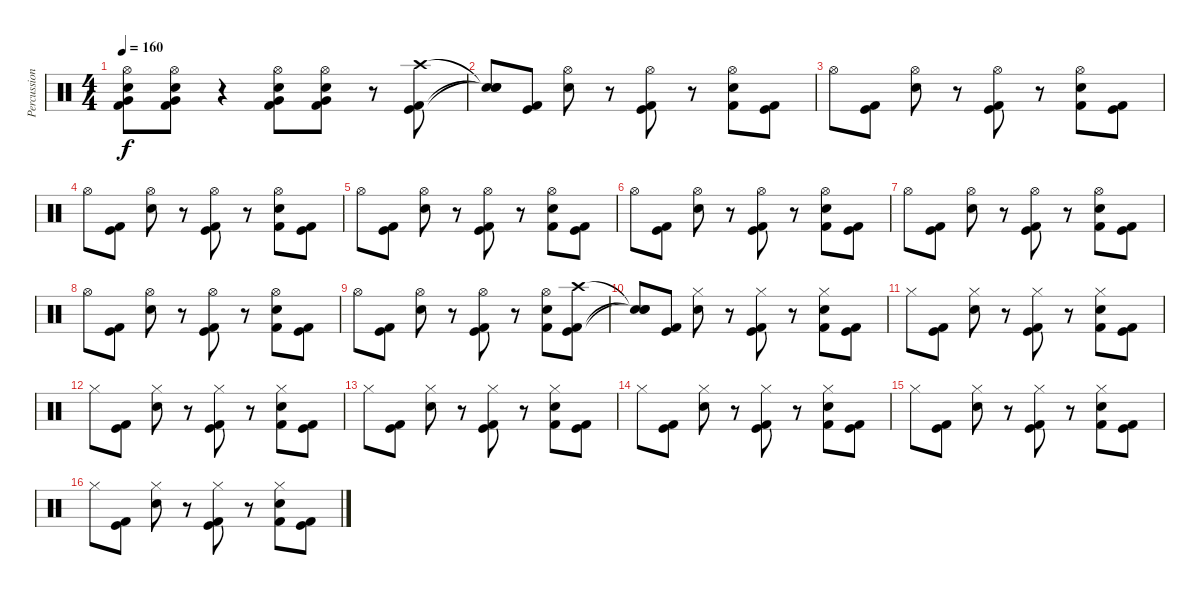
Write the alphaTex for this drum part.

\track ("Percussions" "Percussion") {instrument percussion}
\staff {score}
\articulation defaults
\ts (4 4)
\tempo 160
\clef neutral
\ks c
("Hi-Hat (open)" "Snare (hit) 2" "Very Low Tom (hit)" "Kick (hit) 2").8{dy f} ("Hi-Hat (open)" "Snare (hit) 2" "Very Low Tom (hit)" "Kick (hit) 2").8 r.4 ("Hi-Hat (open)" "Snare (hit) 2" "Very Low Tom (hit)" "Kick (hit) 2").8 ("Hi-Hat (open)" "Snare (hit) 2" "Very Low Tom (hit)" "Kick (hit) 2").8 r.8 ("Kick (hit) 2" "Kick (hit)" "Crash high (hit)").8 |
("Snare (hit)"{t} "Snare (hit)"{t} "Snare (hit)"{t}).8 ("Kick (hit) 2" "Kick (hit)").8 ("Snare (hit) 2" "Hi-Hat (open)").8 r.8 ("Kick (hit) 2" "Kick (hit)" "Hi-Hat (open)").8 r.8 ("Kick (hit) 2" "Snare (hit) 2" "Hi-Hat (open)").8 ("Kick (hit) 2" "Kick (hit)").8 |
"Hi-Hat (open)".8 ("Kick (hit) 2" "Kick (hit)").8 ("Snare (hit) 2" "Hi-Hat (open)").8 r.8 ("Kick (hit) 2" "Kick (hit)" "Hi-Hat (open)").8 r.8 ("Kick (hit) 2" "Snare (hit) 2" "Hi-Hat (open)").8 ("Kick (hit) 2" "Kick (hit)").8 |
"Hi-Hat (open)".8 ("Kick (hit) 2" "Kick (hit)").8 ("Snare (hit) 2" "Hi-Hat (open)").8 r.8 ("Kick (hit) 2" "Kick (hit)" "Hi-Hat (open)").8 r.8 ("Kick (hit) 2" "Snare (hit) 2" "Hi-Hat (open)").8 ("Kick (hit) 2" "Kick (hit)").8 |
"Hi-Hat (open)".8 ("Kick (hit) 2" "Kick (hit)").8 ("Snare (hit) 2" "Hi-Hat (open)").8 r.8 ("Kick (hit) 2" "Kick (hit)" "Hi-Hat (open)").8 r.8 ("Kick (hit) 2" "Snare (hit) 2" "Hi-Hat (open)").8 ("Kick (hit) 2" "Kick (hit)").8 |
"Hi-Hat (open)".8 ("Kick (hit) 2" "Kick (hit)").8 ("Snare (hit) 2" "Hi-Hat (open)").8 r.8 ("Kick (hit) 2" "Kick (hit)" "Hi-Hat (open)").8 r.8 ("Kick (hit) 2" "Snare (hit) 2" "Hi-Hat (open)").8 ("Kick (hit) 2" "Kick (hit)").8 |
"Hi-Hat (open)".8 ("Kick (hit) 2" "Kick (hit)").8 ("Snare (hit) 2" "Hi-Hat (open)").8 r.8 ("Kick (hit) 2" "Kick (hit)" "Hi-Hat (open)").8 r.8 ("Kick (hit) 2" "Snare (hit) 2" "Hi-Hat (open)").8 ("Kick (hit) 2" "Kick (hit)").8 |
"Hi-Hat (open)".8 ("Kick (hit) 2" "Kick (hit)").8 ("Snare (hit) 2" "Hi-Hat (open)").8 r.8 ("Kick (hit) 2" "Kick (hit)" "Hi-Hat (open)").8 r.8 ("Kick (hit) 2" "Snare (hit) 2" "Hi-Hat (open)").8 ("Kick (hit) 2" "Kick (hit)").8 |
"Hi-Hat (open)".8 ("Kick (hit) 2" "Kick (hit)").8 ("Snare (hit) 2" "Hi-Hat (open)").8 r.8 ("Kick (hit) 2" "Kick (hit)" "Hi-Hat (open)").8 r.8 ("Kick (hit) 2" "Snare (hit) 2" "Hi-Hat (open)").8 ("Kick (hit) 2" "Kick (hit)" "Crash high (hit)").8 |
("Snare (hit)"{t} "Snare (hit)"{t} "Snare (hit)"{t}).8 ("Kick (hit) 2" "Kick (hit)").8 ("Snare (hit) 2" "Hi-Hat (closed)").8 r.8 ("Kick (hit) 2" "Kick (hit)" "Hi-Hat (closed)").8 r.8 ("Kick (hit) 2" "Snare (hit) 2" "Hi-Hat (closed)").8 ("Kick (hit) 2" "Kick (hit)").8 |
"Hi-Hat (closed)".8 ("Kick (hit) 2" "Kick (hit)").8 ("Snare (hit) 2" "Hi-Hat (closed)").8 r.8 ("Kick (hit) 2" "Kick (hit)" "Hi-Hat (closed)").8 r.8 ("Kick (hit) 2" "Snare (hit) 2" "Hi-Hat (closed)").8 ("Kick (hit) 2" "Kick (hit)").8 |
"Hi-Hat (closed)".8 ("Kick (hit) 2" "Kick (hit)").8 ("Snare (hit) 2" "Hi-Hat (closed)").8 r.8 ("Kick (hit) 2" "Kick (hit)" "Hi-Hat (closed)").8 r.8 ("Kick (hit) 2" "Snare (hit) 2" "Hi-Hat (closed)").8 ("Kick (hit) 2" "Kick (hit)").8 |
"Hi-Hat (closed)".8 ("Kick (hit) 2" "Kick (hit)").8 ("Snare (hit) 2" "Hi-Hat (closed)").8 r.8 ("Kick (hit) 2" "Kick (hit)" "Hi-Hat (closed)").8 r.8 ("Kick (hit) 2" "Snare (hit) 2" "Hi-Hat (closed)").8 ("Kick (hit) 2" "Kick (hit)").8 |
"Hi-Hat (closed)".8 ("Kick (hit) 2" "Kick (hit)").8 ("Snare (hit) 2" "Hi-Hat (closed)").8 r.8 ("Kick (hit) 2" "Kick (hit)" "Hi-Hat (closed)").8 r.8 ("Kick (hit) 2" "Snare (hit) 2" "Hi-Hat (closed)").8 ("Kick (hit) 2" "Kick (hit)").8 |
"Hi-Hat (closed)".8 ("Kick (hit) 2" "Kick (hit)").8 ("Snare (hit) 2" "Hi-Hat (closed)").8 r.8 ("Kick (hit) 2" "Kick (hit)" "Hi-Hat (closed)").8 r.8 ("Kick (hit) 2" "Snare (hit) 2" "Hi-Hat (closed)").8 ("Kick (hit) 2" "Kick (hit)").8 |
"Hi-Hat (closed)".8 ("Kick (hit) 2" "Kick (hit)").8 ("Snare (hit) 2" "Hi-Hat (closed)").8 r.8 ("Kick (hit) 2" "Kick (hit)" "Hi-Hat (closed)").8 r.8 ("Kick (hit) 2" "Snare (hit) 2" "Hi-Hat (closed)").8 ("Kick (hit) 2" "Kick (hit)").8
